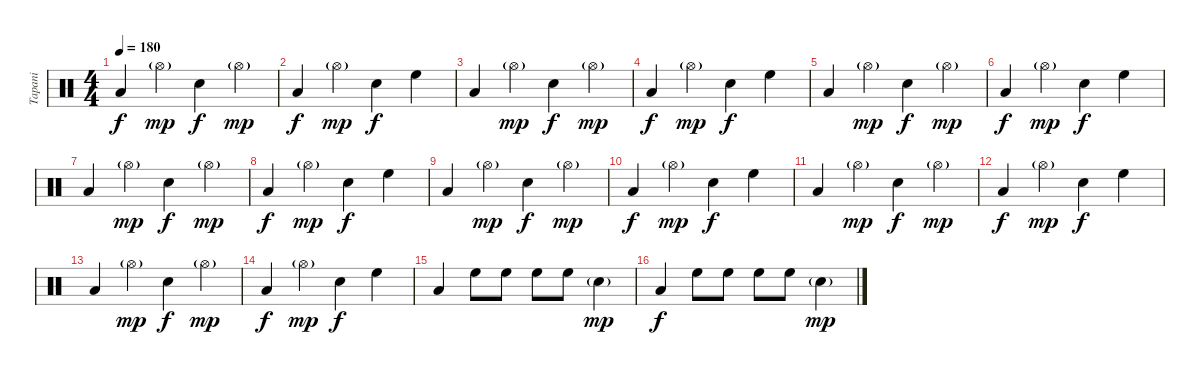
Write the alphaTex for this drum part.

\track ("Tapani" "Tapani") {instrument percussion}
\staff {score}
\articulation defaults
\ts (4 4)
\tempo 180
\clef neutral
\ks c "Low Tom (hit)".4{dy f} "Hi-Hat (open)"{g}.4{dy mp} "Electric Snare (hit)".4{dy f} "Hi-Hat (open)"{g}.4{dy mp}
|
"Low Tom (hit)".4{dy f} "Hi-Hat (open)"{g}.4{dy mp} "Electric Snare (hit)".4{dy f} "High Floor Tom (hit)".4 |
"Low Tom (hit)".4 "Hi-Hat (open)"{g}.4{dy mp} "Electric Snare (hit)".4{dy f} "Hi-Hat (open)"{g}.4{dy mp} |
"Low Tom (hit)".4{dy f} "Hi-Hat (open)"{g}.4{dy mp} "Electric Snare (hit)".4{dy f} "High Floor Tom (hit)".4 |
"Low Tom (hit)".4 "Hi-Hat (open)"{g}.4{dy mp} "Electric Snare (hit)".4{dy f} "Hi-Hat (open)"{g}.4{dy mp} |
"Low Tom (hit)".4{dy f} "Hi-Hat (open)"{g}.4{dy mp} "Electric Snare (hit)".4{dy f} "High Floor Tom (hit)".4 |
"Low Tom (hit)".4 "Hi-Hat (open)"{g}.4{dy mp} "Electric Snare (hit)".4{dy f} "Hi-Hat (open)"{g}.4{dy mp} |
"Low Tom (hit)".4{dy f} "Hi-Hat (open)"{g}.4{dy mp} "Electric Snare (hit)".4{dy f} "High Floor Tom (hit)".4 |
"Low Tom (hit)".4 "Hi-Hat (open)"{g}.4{dy mp} "Electric Snare (hit)".4{dy f} "Hi-Hat (open)"{g}.4{dy mp} |
"Low Tom (hit)".4{dy f} "Hi-Hat (open)"{g}.4{dy mp} "Electric Snare (hit)".4{dy f} "High Floor Tom (hit)".4 |
"Low Tom (hit)".4 "Hi-Hat (open)"{g}.4{dy mp} "Electric Snare (hit)".4{dy f} "Hi-Hat (open)"{g}.4{dy mp} |
"Low Tom (hit)".4{dy f} "Hi-Hat (open)"{g}.4{dy mp} "Electric Snare (hit)".4{dy f} "High Floor Tom (hit)".4 |
"Low Tom (hit)".4 "Hi-Hat (open)"{g}.4{dy mp} "Electric Snare (hit)".4{dy f} "Hi-Hat (open)"{g}.4{dy mp} |
"Low Tom (hit)".4{dy f} "Hi-Hat (open)"{g}.4{dy mp} "Electric Snare (hit)".4{dy f} "High Floor Tom (hit)".4 |
"Low Tom (hit)".4 "High Floor Tom (hit)".8 "High Floor Tom (hit)".8 "High Floor Tom (hit)".8 "High Floor Tom (hit)".8 "Electric Snare (hit)"{g}.4{dy mp} |
"Low Tom (hit)".4{dy f} "High Floor Tom (hit)".8 "High Floor Tom (hit)".8 "High Floor Tom (hit)".8 "High Floor Tom (hit)".8 "Electric Snare (hit)"{g}.4{dy mp}
